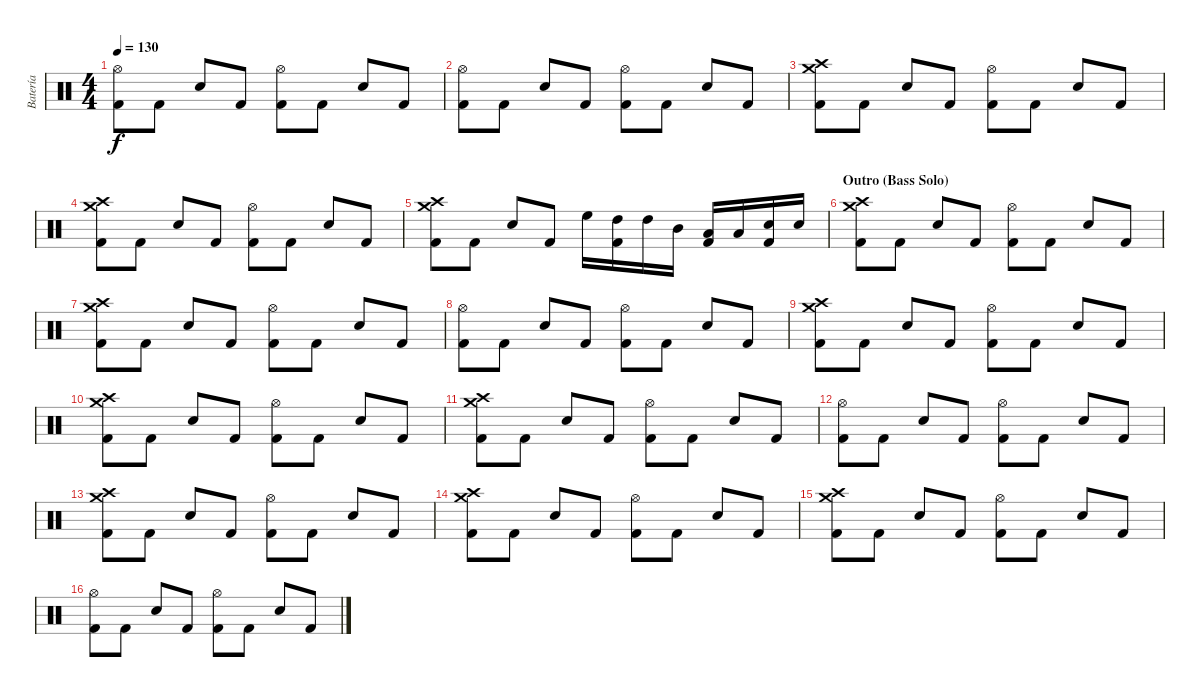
\track ("Batería" "Batería") {instrument percussion}
\staff {score}
\articulation defaults
\ts (4 4)
\tempo 130
\clef neutral
\ks c
("Hi-Hat (open)" "Kick (hit) 2").8{dy f} "Kick (hit) 2".8 "Snare (hit) 2".8 "Kick (hit) 2".8 ("Hi-Hat (open)" "Kick (hit) 2").8 "Kick (hit) 2".8 "Snare (hit) 2".8 "Kick (hit) 2".8 |
("Hi-Hat (open)" "Kick (hit) 2").8 "Kick (hit) 2".8 "Snare (hit) 2".8 "Kick (hit) 2".8 ("Hi-Hat (open)" "Kick (hit) 2").8 "Kick (hit) 2".8 "Snare (hit) 2".8 "Kick (hit) 2".8 |
("Crash medium (hit)" "Crash high (hit)" "Kick (hit) 2").8 "Kick (hit) 2".8 "Snare (hit) 2".8 "Kick (hit) 2".8 ("Hi-Hat (open)" "Kick (hit) 2").8 "Kick (hit) 2".8 "Snare (hit) 2".8 "Kick (hit) 2".8 |
("Crash medium (hit)" "Crash high (hit)" "Kick (hit) 2").8 "Kick (hit) 2".8 "Snare (hit) 2".8 "Kick (hit) 2".8 ("Hi-Hat (open)" "Kick (hit) 2").8 "Kick (hit) 2".8 "Snare (hit) 2".8 "Kick (hit) 2".8 |
("Crash high (hit)" "Crash medium (hit)" "Kick (hit) 2").8 "Kick (hit) 2".8 "Snare (hit) 2".8 "Kick (hit) 2".8 "High Floor Tom (hit)".16 ("High Tom (hit)" "Kick (hit) 2").16 "High Tom (hit)".16 "Mid Tom (hit)".16 ("Low Tom (hit)" "Kick (hit) 2").16 "Low Tom (hit)".16 ("Snare (hit) 2" "Kick (hit) 2").16 "Snare (hit) 2".16 |
\section ("" "Outro (Bass Solo)")
("Crash medium (hit)" "Crash high (hit)" "Kick (hit) 2").8 "Kick (hit) 2".8 "Snare (hit) 2".8 "Kick (hit) 2".8 ("Hi-Hat (open)" "Kick (hit) 2").8 "Kick (hit) 2".8 "Snare (hit) 2".8 "Kick (hit) 2".8 |
("Crash medium (hit)" "Crash high (hit)" "Kick (hit) 2").8 "Kick (hit) 2".8 "Snare (hit) 2".8 "Kick (hit) 2".8 ("Hi-Hat (open)" "Kick (hit) 2").8 "Kick (hit) 2".8 "Snare (hit) 2".8 "Kick (hit) 2".8 |
("Hi-Hat (open)" "Kick (hit) 2").8 "Kick (hit) 2".8 "Snare (hit) 2".8 "Kick (hit) 2".8 ("Hi-Hat (open)" "Kick (hit) 2").8 "Kick (hit) 2".8 "Snare (hit) 2".8 "Kick (hit) 2".8 |
("Crash medium (hit)" "Crash high (hit)" "Kick (hit) 2").8 "Kick (hit) 2".8 "Snare (hit) 2".8 "Kick (hit) 2".8 ("Hi-Hat (open)" "Kick (hit) 2").8 "Kick (hit) 2".8 "Snare (hit) 2".8 "Kick (hit) 2".8 |
("Crash medium (hit)" "Crash high (hit)" "Kick (hit) 2").8 "Kick (hit) 2".8 "Snare (hit) 2".8 "Kick (hit) 2".8 ("Hi-Hat (open)" "Kick (hit) 2").8 "Kick (hit) 2".8 "Snare (hit) 2".8 "Kick (hit) 2".8 |
("Crash medium (hit)" "Crash high (hit)" "Kick (hit) 2").8 "Kick (hit) 2".8 "Snare (hit) 2".8 "Kick (hit) 2".8 ("Hi-Hat (open)" "Kick (hit) 2").8 "Kick (hit) 2".8 "Snare (hit) 2".8 "Kick (hit) 2".8 |
("Hi-Hat (open)" "Kick (hit) 2").8 "Kick (hit) 2".8 "Snare (hit) 2".8 "Kick (hit) 2".8 ("Hi-Hat (open)" "Kick (hit) 2").8 "Kick (hit) 2".8 "Snare (hit) 2".8 "Kick (hit) 2".8 |
("Crash medium (hit)" "Crash high (hit)" "Kick (hit) 2").8 "Kick (hit) 2".8 "Snare (hit) 2".8 "Kick (hit) 2".8 ("Hi-Hat (open)" "Kick (hit) 2").8 "Kick (hit) 2".8 "Snare (hit) 2".8 "Kick (hit) 2".8 |
("Crash medium (hit)" "Crash high (hit)" "Kick (hit) 2").8 "Kick (hit) 2".8 "Snare (hit) 2".8 "Kick (hit) 2".8 ("Hi-Hat (open)" "Kick (hit) 2").8 "Kick (hit) 2".8 "Snare (hit) 2".8 "Kick (hit) 2".8 |
("Crash medium (hit)" "Crash high (hit)" "Kick (hit) 2").8 "Kick (hit) 2".8 "Snare (hit) 2".8 "Kick (hit) 2".8 ("Hi-Hat (open)" "Kick (hit) 2").8 "Kick (hit) 2".8 "Snare (hit) 2".8 "Kick (hit) 2".8 |
("Hi-Hat (open)" "Kick (hit) 2").8 "Kick (hit) 2".8 "Snare (hit) 2".8 "Kick (hit) 2".8 ("Hi-Hat (open)" "Kick (hit) 2").8 "Kick (hit) 2".8 "Snare (hit) 2".8 "Kick (hit) 2".8
